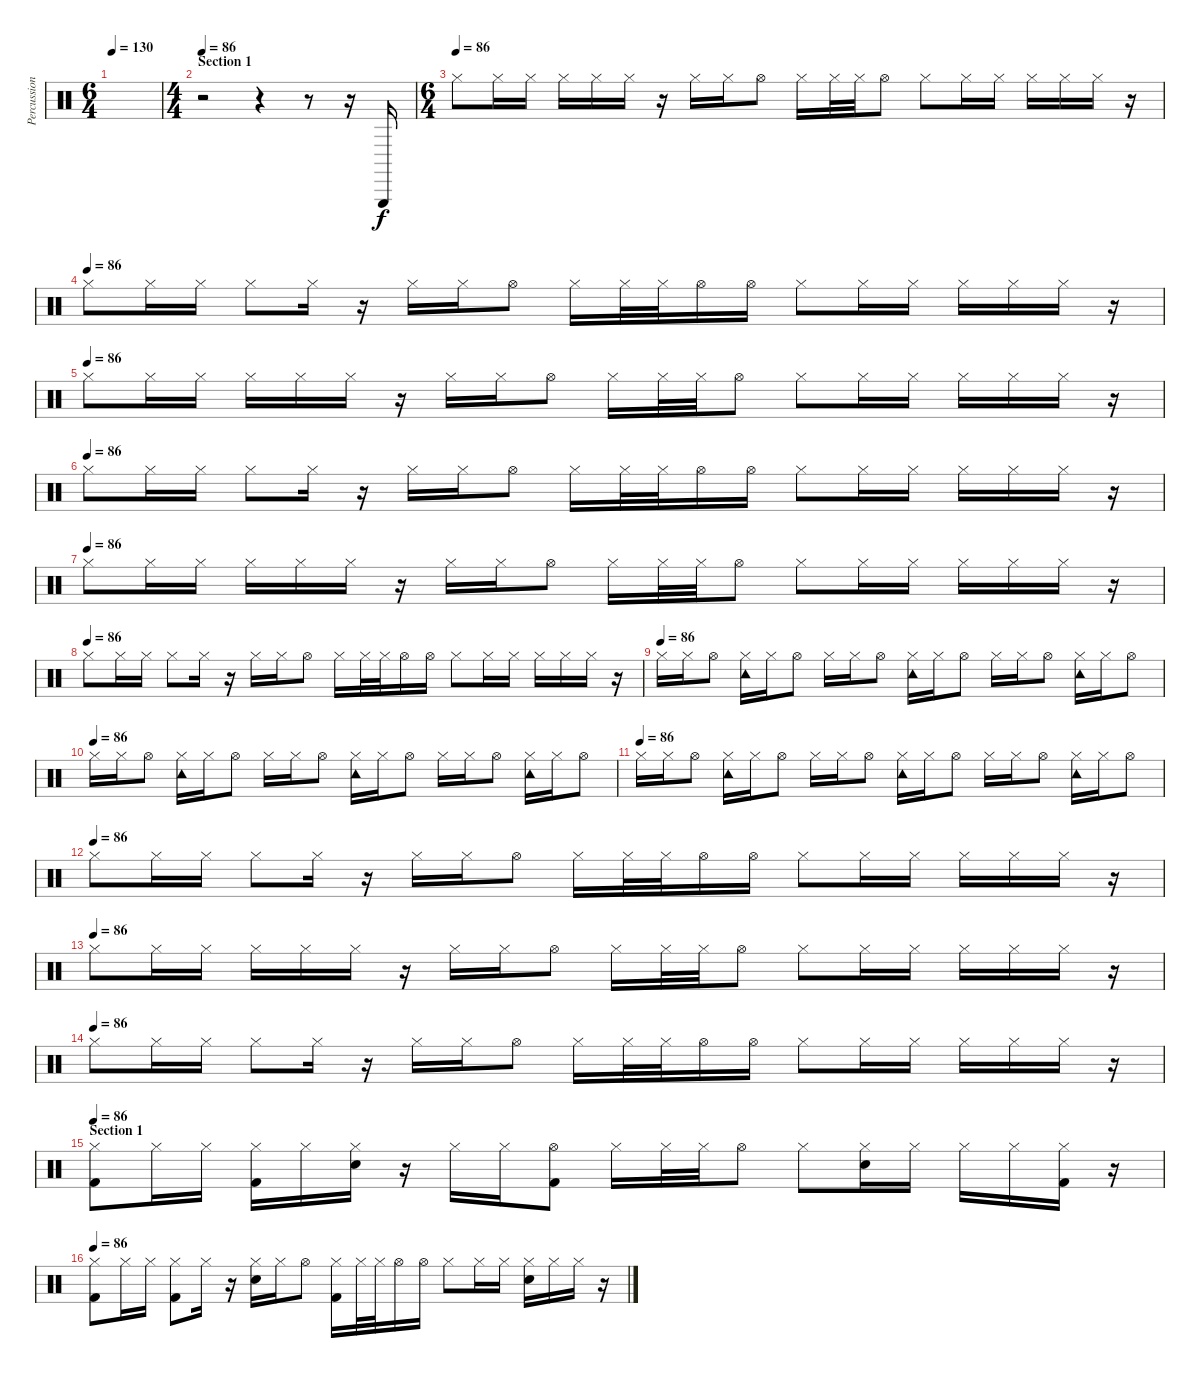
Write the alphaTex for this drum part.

\track ("Percussion" "Percussion") {instrument percussion}
\staff {score}
\articulation defaults
\ts (6 4)
\tempo 130
\clef neutral
\ks c
|
\ts (4 4)
\section ("" "Section 1")
\tempo 86
r.2 r.4 r.8 r.16 "Triangle (hit)".16 |
\ts (6 4)
\tempo (86)
"Hi-Hat (closed)".8 "Hi-Hat (closed)".16 "Hi-Hat (closed)".16 "Hi-Hat (closed)".16 "Hi-Hat (closed)".16 "Hi-Hat (closed)".16 r.16 "Hi-Hat (closed)".16 "Hi-Hat (closed)".16 "Hi-Hat (open)".8 "Hi-Hat (closed)".16 "Hi-Hat (closed)".32 "Hi-Hat (closed)".32 "Hi-Hat (open)".8 "Hi-Hat (closed)".8 "Hi-Hat (closed)".16 "Hi-Hat (closed)".16 "Hi-Hat (closed)".16 "Hi-Hat (closed)".16 "Hi-Hat (closed)".16 r.16 |
\tempo (86)
"Hi-Hat (closed)".8 "Hi-Hat (closed)".16 "Hi-Hat (closed)".16 "Hi-Hat (closed)".8 "Hi-Hat (closed)".16 r.16 "Hi-Hat (closed)".16 "Hi-Hat (closed)".16 "Hi-Hat (open)".8 "Hi-Hat (closed)".16 "Hi-Hat (closed)".32 "Hi-Hat (closed)".32 "Hi-Hat (open)".16 "Hi-Hat (open)".16 "Hi-Hat (closed)".8 "Hi-Hat (closed)".16 "Hi-Hat (closed)".16 "Hi-Hat (closed)".16 "Hi-Hat (closed)".16 "Hi-Hat (closed)".16 r.16 |
\tempo (86)
"Hi-Hat (closed)".8 "Hi-Hat (closed)".16 "Hi-Hat (closed)".16 "Hi-Hat (closed)".16 "Hi-Hat (closed)".16 "Hi-Hat (closed)".16 r.16 "Hi-Hat (closed)".16 "Hi-Hat (closed)".16 "Hi-Hat (open)".8 "Hi-Hat (closed)".16 "Hi-Hat (closed)".32 "Hi-Hat (closed)".32 "Hi-Hat (open)".8 "Hi-Hat (closed)".8 "Hi-Hat (closed)".16 "Hi-Hat (closed)".16 "Hi-Hat (closed)".16 "Hi-Hat (closed)".16 "Hi-Hat (closed)".16 r.16 |
\tempo (86)
"Hi-Hat (closed)".8 "Hi-Hat (closed)".16 "Hi-Hat (closed)".16 "Hi-Hat (closed)".8 "Hi-Hat (closed)".16 r.16 "Hi-Hat (closed)".16 "Hi-Hat (closed)".16 "Hi-Hat (open)".8 "Hi-Hat (closed)".16 "Hi-Hat (closed)".32 "Hi-Hat (closed)".32 "Hi-Hat (open)".16 "Hi-Hat (open)".16 "Hi-Hat (closed)".8 "Hi-Hat (closed)".16 "Hi-Hat (closed)".16 "Hi-Hat (closed)".16 "Hi-Hat (closed)".16 "Hi-Hat (closed)".16 r.16 |
\tempo (86)
"Hi-Hat (closed)".8 "Hi-Hat (closed)".16 "Hi-Hat (closed)".16 "Hi-Hat (closed)".16 "Hi-Hat (closed)".16 "Hi-Hat (closed)".16 r.16 "Hi-Hat (closed)".16 "Hi-Hat (closed)".16 "Hi-Hat (open)".8 "Hi-Hat (closed)".16 "Hi-Hat (closed)".32 "Hi-Hat (closed)".32 "Hi-Hat (open)".8 "Hi-Hat (closed)".8 "Hi-Hat (closed)".16 "Hi-Hat (closed)".16 "Hi-Hat (closed)".16 "Hi-Hat (closed)".16 "Hi-Hat (closed)".16 r.16 |
\tempo (86)
"Hi-Hat (closed)".8 "Hi-Hat (closed)".16 "Hi-Hat (closed)".16 "Hi-Hat (closed)".8 "Hi-Hat (closed)".16 r.16 "Hi-Hat (closed)".16 "Hi-Hat (closed)".16 "Hi-Hat (open)".8 "Hi-Hat (closed)".16 "Hi-Hat (closed)".32 "Hi-Hat (closed)".32 "Hi-Hat (open)".16 "Hi-Hat (open)".16 "Hi-Hat (closed)".8 "Hi-Hat (closed)".16 "Hi-Hat (closed)".16 "Hi-Hat (closed)".16 "Hi-Hat (closed)".16 "Hi-Hat (closed)".16 r.16 |
\tempo (86)
"Hi-Hat (closed)".16{balance 0} "Hi-Hat (closed)".16 "Hi-Hat (open)".8 ("Hi-Hat (closed)" "Tambourine (hit)").16{balance 16} "Hi-Hat (closed)".16 "Hi-Hat (open)".8 "Hi-Hat (closed)".16{balance 0} "Hi-Hat (closed)".16 "Hi-Hat (open)".8 ("Hi-Hat (closed)" "Tambourine (hit)").16{balance 16} "Hi-Hat (closed)".16 "Hi-Hat (open)".8 "Hi-Hat (closed)".16{balance 0} "Hi-Hat (closed)".16 "Hi-Hat (open)".8 ("Hi-Hat (closed)" "Tambourine (hit)").16{balance 16} "Hi-Hat (closed)".16 "Hi-Hat (open)".8 |
\tempo (86)
"Hi-Hat (closed)".16{balance 0} "Hi-Hat (closed)".16 "Hi-Hat (open)".8 ("Hi-Hat (closed)" "Tambourine (hit)").16{balance 16} "Hi-Hat (closed)".16 "Hi-Hat (open)".8 "Hi-Hat (closed)".16{balance 0} "Hi-Hat (closed)".16 "Hi-Hat (open)".8 ("Hi-Hat (closed)" "Tambourine (hit)").16{balance 16} "Hi-Hat (closed)".16 "Hi-Hat (open)".8 "Hi-Hat (closed)".16{balance 0} "Hi-Hat (closed)".16 "Hi-Hat (open)".8 ("Hi-Hat (closed)" "Tambourine (hit)").16{balance 16} "Hi-Hat (closed)".16 "Hi-Hat (open)".8 |
\tempo (86)
"Hi-Hat (closed)".16{balance 0} "Hi-Hat (closed)".16 "Hi-Hat (open)".8 ("Hi-Hat (closed)" "Tambourine (hit)").16{balance 16} "Hi-Hat (closed)".16 "Hi-Hat (open)".8 "Hi-Hat (closed)".16{balance 0} "Hi-Hat (closed)".16 "Hi-Hat (open)".8 ("Hi-Hat (closed)" "Tambourine (hit)").16{balance 8} "Hi-Hat (closed)".16 "Hi-Hat (open)".8 "Hi-Hat (closed)".16 "Hi-Hat (closed)".16 "Hi-Hat (open)".8 ("Hi-Hat (closed)" "Tambourine (hit)").16 "Hi-Hat (closed)".16 "Hi-Hat (open)".8 |
\tempo (86)
"Hi-Hat (closed)".8 "Hi-Hat (closed)".16 "Hi-Hat (closed)".16 "Hi-Hat (closed)".8 "Hi-Hat (closed)".16 r.16 "Hi-Hat (closed)".16 "Hi-Hat (closed)".16 "Hi-Hat (open)".8 "Hi-Hat (closed)".16 "Hi-Hat (closed)".32 "Hi-Hat (closed)".32 "Hi-Hat (open)".16 "Hi-Hat (open)".16 "Hi-Hat (closed)".8 "Hi-Hat (closed)".16 "Hi-Hat (closed)".16 "Hi-Hat (closed)".16 "Hi-Hat (closed)".16 "Hi-Hat (closed)".16 r.16 |
\tempo (86)
"Hi-Hat (closed)".8 "Hi-Hat (closed)".16 "Hi-Hat (closed)".16 "Hi-Hat (closed)".16 "Hi-Hat (closed)".16 "Hi-Hat (closed)".16 r.16 "Hi-Hat (closed)".16 "Hi-Hat (closed)".16 "Hi-Hat (open)".8 "Hi-Hat (closed)".16 "Hi-Hat (closed)".32 "Hi-Hat (closed)".32 "Hi-Hat (open)".8 "Hi-Hat (closed)".8 "Hi-Hat (closed)".16 "Hi-Hat (closed)".16 "Hi-Hat (closed)".16 "Hi-Hat (closed)".16 "Hi-Hat (closed)".16 r.16 |
\tempo (86)
"Hi-Hat (closed)".8 "Hi-Hat (closed)".16 "Hi-Hat (closed)".16 "Hi-Hat (closed)".8 "Hi-Hat (closed)".16 r.16 "Hi-Hat (closed)".16 "Hi-Hat (closed)".16 "Hi-Hat (open)".8 "Hi-Hat (closed)".16 "Hi-Hat (closed)".32 "Hi-Hat (closed)".32 "Hi-Hat (open)".16 "Hi-Hat (open)".16 "Hi-Hat (closed)".8 "Hi-Hat (closed)".16 "Hi-Hat (closed)".16 "Hi-Hat (closed)".16 "Hi-Hat (closed)".16 "Hi-Hat (closed)".16 r.16 |
\section ("" "Section 1")
\tempo 86
("Hi-Hat (closed)" "Kick (hit) 2").8 "Hi-Hat (closed)".16 "Hi-Hat (closed)".16 ("Hi-Hat (closed)" "Kick (hit) 2").16 "Hi-Hat (closed)".16 ("Hi-Hat (closed)" "Electric Snare (hit)").16 r.16 "Hi-Hat (closed)".16 "Hi-Hat (closed)".16 ("Hi-Hat (open)" "Kick (hit) 2").8 "Hi-Hat (closed)".16 "Hi-Hat (closed)".32 "Hi-Hat (closed)".32 "Hi-Hat (open)".8 "Hi-Hat (closed)".8 ("Hi-Hat (closed)" "Electric Snare (hit)").16 "Hi-Hat (closed)".16 "Hi-Hat (closed)".16 "Hi-Hat (closed)".16 ("Hi-Hat (closed)" "Kick (hit) 2").16 r.16 |
\tempo 86
("Hi-Hat (closed)" "Kick (hit) 2").8 "Hi-Hat (closed)".16 "Hi-Hat (closed)".16 ("Hi-Hat (closed)" "Kick (hit) 2").8 "Hi-Hat (closed)".16 r.16 ("Hi-Hat (closed)" "Electric Snare (hit)").16 "Hi-Hat (closed)".16 "Hi-Hat (open)".8 ("Hi-Hat (closed)" "Kick (hit) 2").16 "Hi-Hat (closed)".32 "Hi-Hat (closed)".32 "Hi-Hat (open)".16 "Hi-Hat (open)".16 "Hi-Hat (closed)".8 "Hi-Hat (closed)".16 "Hi-Hat (closed)".16 ("Hi-Hat (closed)" "Electric Snare (hit)").16 "Hi-Hat (closed)".16 "Hi-Hat (closed)".16 r.16
